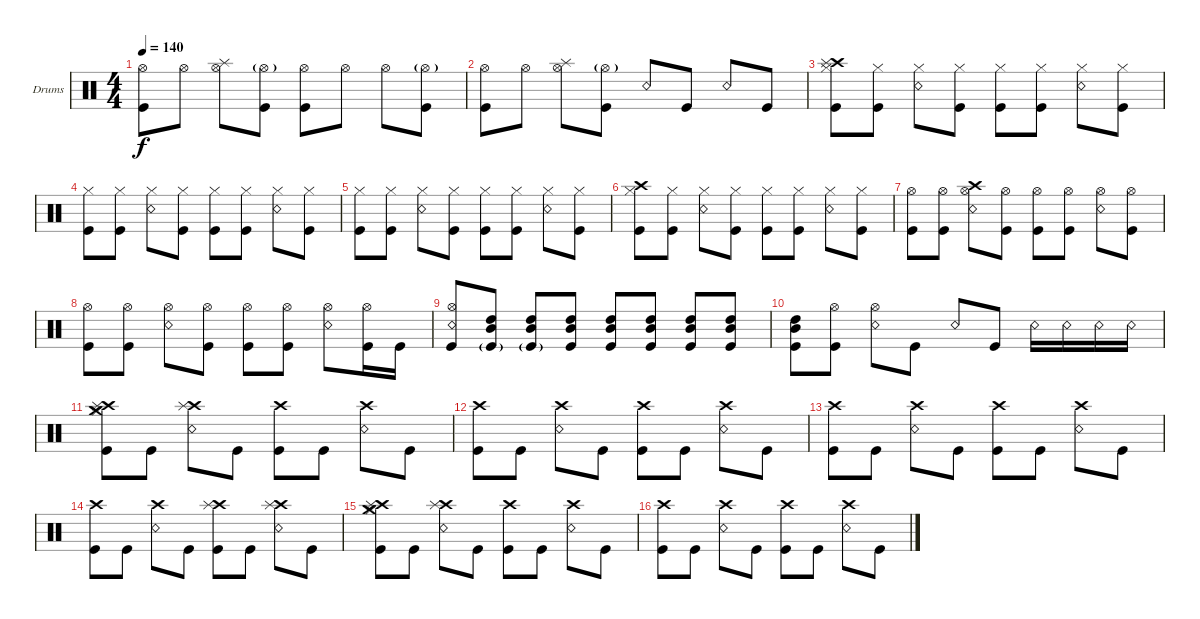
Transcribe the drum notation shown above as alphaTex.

\bracketExtendMode groupsimilarinstruments
\firstSystemTrackNameOrientation horizontal
\otherSystemsTrackNameOrientation horizontal
\track ("Da Kurlzz - Drums" "Drums") {instrument percussion}
\staff {score}
\articulation defaults
\ts (4 4)
\tempo 140
\clef neutral
\ks c
("Kick (hit)" "Hi-Hat (open)").8{dy f} "Hi-Hat (open)".8 ("Hi-Hat (open)" "Splash (hit)").8 ("Kick (hit)" "Hi-Hat (open)"{g}).8 ("Kick (hit)" "Hi-Hat (open)").8 "Hi-Hat (open)".8 "Hi-Hat (open)".8 ("Kick (hit)" "Hi-Hat (open)"{g}).8 |
("Kick (hit)" "Hi-Hat (open)").8 "Hi-Hat (open)".8 ("Hi-Hat (open)" "Splash (hit)").8 ("Kick (hit)" "Hi-Hat (open)"{g}).8 "Snare (rim shot)".8 "Kick (hit)".8 "Snare (rim shot)".8 "Kick (hit)".8 |
("Kick (hit)" "Hi-Hat (closed)" "Crash high (hit)" "Splash (hit)").8 ("Kick (hit)" "Hi-Hat (closed)").8 ("Snare (rim shot)" "Hi-Hat (closed)").8 ("Kick (hit)" "Hi-Hat (closed)").8 ("Kick (hit)" "Hi-Hat (closed)").8 ("Kick (hit)" "Hi-Hat (closed)").8 ("Snare (rim shot)" "Hi-Hat (closed)").8 ("Kick (hit)" "Hi-Hat (closed)").8 |
("Kick (hit)" "Hi-Hat (closed)").8 ("Kick (hit)" "Hi-Hat (closed)").8 ("Snare (rim shot)" "Hi-Hat (closed)").8 ("Kick (hit)" "Hi-Hat (closed)").8 ("Kick (hit)" "Hi-Hat (closed)").8 ("Kick (hit)" "Hi-Hat (closed)").8 ("Snare (rim shot)" "Hi-Hat (closed)").8 ("Kick (hit)" "Hi-Hat (closed)").8 |
("Kick (hit)" "Hi-Hat (closed)").8 ("Kick (hit)" "Hi-Hat (closed)").8 ("Snare (rim shot)" "Hi-Hat (closed)").8 ("Kick (hit)" "Hi-Hat (closed)").8 ("Kick (hit)" "Hi-Hat (closed)").8 ("Kick (hit)" "Hi-Hat (closed)").8 ("Snare (rim shot)" "Hi-Hat (closed)").8 ("Kick (hit)" "Hi-Hat (closed)").8 |
("Kick (hit)" "Hi-Hat (closed)" "Crash high (hit)").8 ("Kick (hit)" "Hi-Hat (closed)").8 ("Snare (rim shot)" "Hi-Hat (closed)").8 ("Kick (hit)" "Hi-Hat (closed)").8 ("Kick (hit)" "Hi-Hat (closed)").8 ("Kick (hit)" "Hi-Hat (closed)").8 ("Snare (rim shot)" "Hi-Hat (closed)").8 ("Kick (hit)" "Hi-Hat (closed)").8 |
("Kick (hit)" "Hi-Hat (open)").8 ("Kick (hit)" "Hi-Hat (open)").8 ("Snare (rim shot)" "Hi-Hat (open)" "Crash high (hit)").8 ("Kick (hit)" "Hi-Hat (open)").8 ("Kick (hit)" "Hi-Hat (open)").8 ("Kick (hit)" "Hi-Hat (open)").8 ("Snare (rim shot)" "Hi-Hat (open)").8 ("Kick (hit)" "Hi-Hat (open)").8 |
("Kick (hit)" "Hi-Hat (open)").8 ("Kick (hit)" "Hi-Hat (open)").8 ("Snare (rim shot)" "Hi-Hat (open)").8 ("Kick (hit)" "Hi-Hat (open)").8 ("Kick (hit)" "Hi-Hat (open)").8 ("Kick (hit)" "Hi-Hat (open)").8 ("Snare (rim shot)" "Hi-Hat (open)").8 ("Kick (hit)" "Hi-Hat (open)").16 "Kick (hit)".16 |
("Kick (hit)" "Snare (rim shot)" "Hi-Hat (open)").8 ("Kick (hit)"{g} "High Tom (hit)" "Mid Tom (hit)").8 ("Kick (hit)"{g} "Mid Tom (hit)" "High Tom (hit)").8 ("Kick (hit)" "Mid Tom (hit)" "High Tom (hit)").8 ("Kick (hit)" "Mid Tom (hit)" "High Tom (hit)").8 ("Kick (hit)" "Mid Tom (hit)" "High Tom (hit)").8 ("Kick (hit)" "Mid Tom (hit)" "High Tom (hit)").8 ("Kick (hit)" "Mid Tom (hit)" "High Tom (hit)").8 |
("Kick (hit)" "Mid Tom (hit)" "High Tom (hit)").8 ("Kick (hit)" "Hi-Hat (open)").8 ("Hi-Hat (open)" "Snare (rim shot)").8 "Kick (hit)".8 "Snare (rim shot)".8 "Kick (hit)".8 "Snare (rim shot)".16 "Snare (rim shot)".16 "Snare (rim shot)".16 "Snare (rim shot)".16 |
("Kick (hit)" "Crash high (hit)" "Crash medium (hit)" "Hi-Hat (closed)" "Splash (hit)").8 "Kick (hit)".8 ("Snare (rim shot)" "Crash high (hit)" "Splash (hit)").8 "Kick (hit)".8 ("Kick (hit)" "Crash high (hit)").8 "Kick (hit)".8 ("Snare (rim shot)" "Crash high (hit)").8 "Kick (hit)".8 |
("Kick (hit)" "Crash high (hit)").8 "Kick (hit)".8 ("Snare (rim shot)" "Crash high (hit)").8 "Kick (hit)".8 ("Kick (hit)" "Crash high (hit)").8 "Kick (hit)".8 ("Snare (rim shot)" "Crash high (hit)").8 "Kick (hit)".8 |
("Kick (hit)" "Crash high (hit)").8 "Kick (hit)".8 ("Snare (rim shot)" "Crash high (hit)").8 "Kick (hit)".8 ("Kick (hit)" "Crash high (hit)").8 "Kick (hit)".8 ("Snare (rim shot)" "Crash high (hit)").8 "Kick (hit)".8 |
("Kick (hit)" "Crash high (hit)").8 "Kick (hit)".8 ("Snare (rim shot)" "Crash high (hit)").8 "Kick (hit)".8 ("Kick (hit)" "Crash high (hit)" "Splash (hit)").8 "Kick (hit)".8 ("Snare (rim shot)" "Crash high (hit)" "Splash (hit)").8 "Kick (hit)".8 |
("Kick (hit)" "Crash high (hit)" "Crash medium (hit)" "Hi-Hat (closed)" "Splash (hit)").8 "Kick (hit)".8 ("Snare (rim shot)" "Crash high (hit)" "Splash (hit)").8 "Kick (hit)".8 ("Kick (hit)" "Crash high (hit)").8 "Kick (hit)".8 ("Snare (rim shot)" "Crash high (hit)").8 "Kick (hit)".8 |
("Kick (hit)" "Crash high (hit)").8 "Kick (hit)".8 ("Snare (rim shot)" "Crash high (hit)").8 "Kick (hit)".8 ("Kick (hit)" "Crash high (hit)").8 "Kick (hit)".8 ("Snare (rim shot)" "Crash high (hit)").8 "Kick (hit)".8
